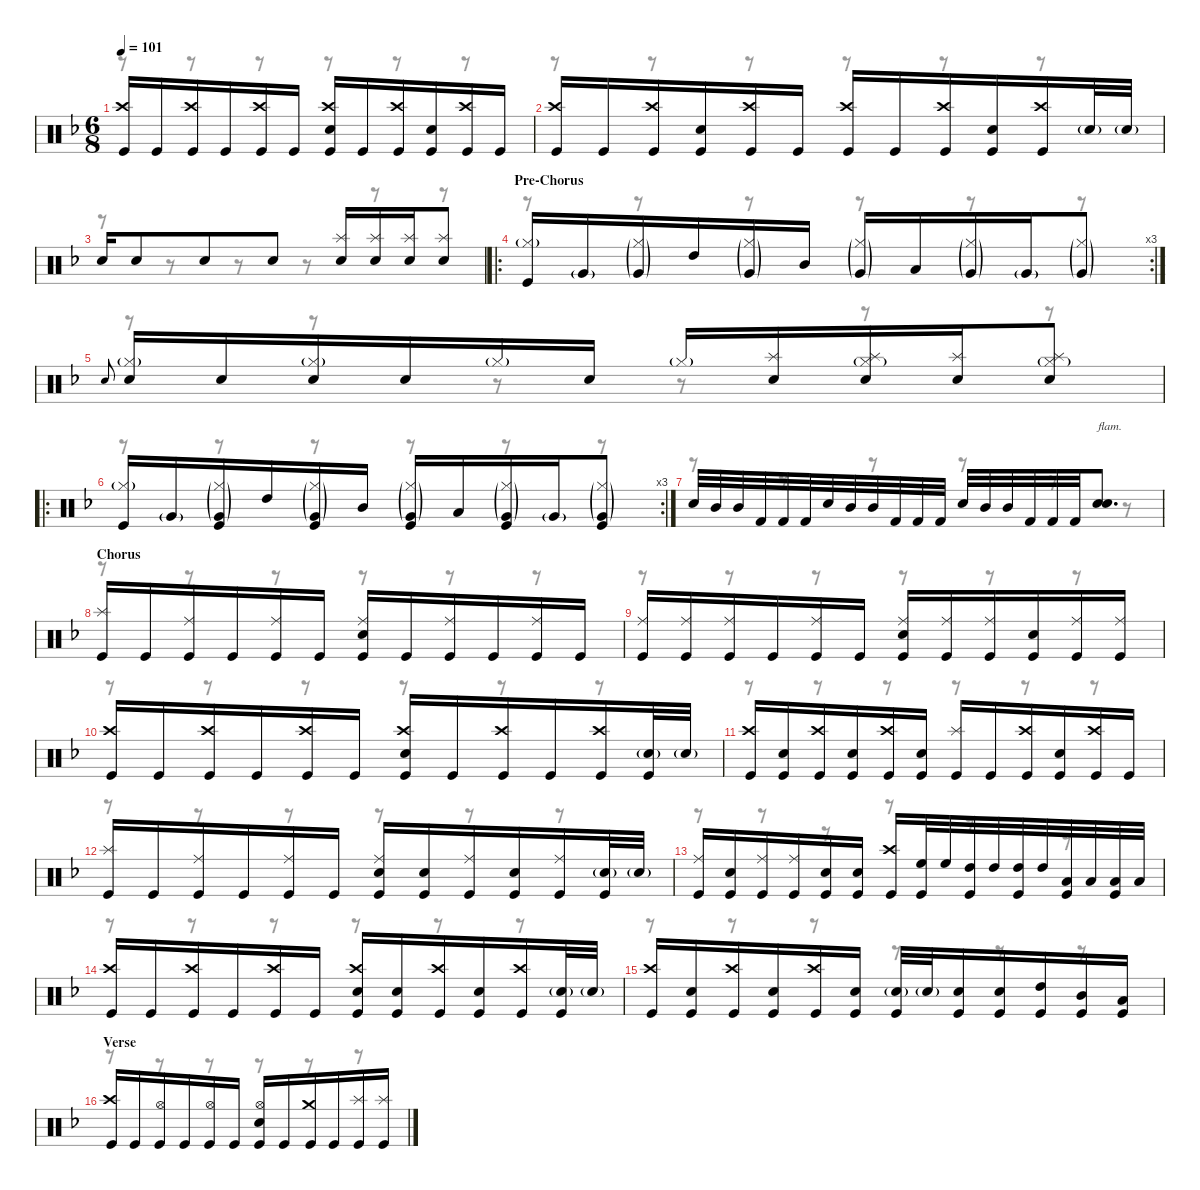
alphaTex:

\defaultSystemsLayout 4
\hideDynamics
\bracketExtendMode nobrackets
\singleTrackTrackNamePolicy hidden
\multiTrackTrackNamePolicy hidden
\otherSystemsTrackNameOrientation horizontal
\track ("M. Lopez" "drm.") {instrument percussion}
\staff {score}
\articulation defaults
\voice
\ts (6 8)
\tempo 101
\clef neutral
\ks dminor
("Crash high (hit)"{acc forcenatural} "Kick (hit)"{acc forcenatural}).16{dy f beam Up} "Kick (hit)"{acc forcenatural}.16{beam Up} ("Crash high (hit)"{acc forcenatural} "Kick (hit)"{acc forcenatural}).16{beam Up} "Kick (hit)"{acc forcenatural}.16{beam Up} ("Crash high (hit)"{acc forcenatural} "Kick (hit)"{acc forcenatural}).16{beam Up} "Kick (hit)"{acc forcenatural}.16{beam Up} ("Crash high (hit)"{acc forcenatural} "Snare (hit) 2"{acc forcenatural} "Kick (hit)"{acc forcenatural}).16{beam Up} "Kick (hit)"{acc forcenatural}.16{beam Up} ("Crash high (hit)"{acc forcenatural} "Kick (hit)"{acc forcenatural}).16{beam Up} ("Snare (hit) 2"{acc forcenatural} "Kick (hit)"{acc forcenatural}).16{beam Up} ("Crash high (hit)"{acc forcenatural} "Kick (hit)"{acc forcenatural}).16{beam Up} "Kick (hit)"{acc forcenatural}.16{beam Up} |
("Crash high (hit)"{acc forcenatural} "Kick (hit)"{acc forcenatural}).16{beam Up} "Kick (hit)"{acc forcenatural}.16{beam Up} ("Crash high (hit)"{acc forcenatural} "Kick (hit)"{acc forcenatural}).16{beam Up} ("Snare (hit) 2"{acc forcenatural} "Kick (hit)"{acc forcenatural}).16{beam Up} ("Crash high (hit)"{acc forcenatural} "Kick (hit)"{acc forcenatural}).16{beam Up} "Kick (hit)"{acc forcenatural}.16{beam Up} ("Crash high (hit)"{acc forcenatural} "Kick (hit)"{acc forcenatural}).16{beam Up} "Kick (hit)"{acc forcenatural}.16{beam Up} ("Crash high (hit)"{acc forcenatural} "Kick (hit)"{acc forcenatural}).16{beam Up} ("Snare (hit) 2"{acc forcenatural} "Kick (hit)"{acc forcenatural}).16{beam Up} ("Crash high (hit)"{acc forcenatural} "Kick (hit)"{acc forcenatural}).16{beam Up} "Snare (hit) 2"{g acc forcenatural}.32{beam Up} "Snare (hit) 2"{g acc forcenatural}.32{dy ff beam Up} |
"Snare (hit) 2"{acc forcenatural}.16{dy f beam Up} "Snare (hit) 2"{acc forcenatural}.8{beam Up} "Snare (hit) 2"{acc forcenatural}.8{beam Up} "Snare (hit) 2"{acc forcenatural}.8{beam Up} ("Splash (hit)"{acc forcenatural} "Snare (hit) 2"{acc forcenatural}).16{dy mf beam Up} ("Splash (hit)"{acc forcenatural} "Snare (hit) 2"{acc forcenatural}).16{beam Up} ("Splash (hit)"{acc forcenatural} "Snare (hit) 2"{acc forcenatural}).16{beam Up} ("Splash (hit)"{acc forcenatural} "Snare (hit) 2"{acc forcenatural}).8{beam Up} |
\ro
\rc 3
\section ("" "Pre-Chorus")
("Hi-Hat (closed)"{g acc forcenatural} "Kick (hit)"{acc forcenatural}).16{beam Up} "Very Low Tom (hit)"{g acc forcenatural}.16{beam Up} ("Hi-Hat (closed)"{g acc forcenatural} "Very Low Tom (hit)"{g acc forcenatural}).16{beam Up} "High Tom (hit)"{acc forcenatural}.16{beam Up} ("Hi-Hat (closed)"{g acc forcenatural} "Very Low Tom (hit)"{g acc forcenatural}).16{beam Up} "Mid Tom (hit)"{acc forcenatural}.16{beam Up} ("Hi-Hat (closed)"{g acc forcenatural} "Very Low Tom (hit)"{g acc forcenatural}).16{beam Up} "Low Tom (hit)"{acc forcenatural}.16{beam Up} ("Hi-Hat (closed)"{g acc forcenatural} "Very Low Tom (hit)"{g acc forcenatural}).16{beam Up} "Very Low Tom (hit)"{g acc forcenatural}.16{dy mp beam Up} ("Hi-Hat (closed)"{g acc forcenatural} "Very Low Tom (hit)"{g acc forcenatural}).8{dy mf beam Up} |
"Electric Snare (hit)"{acc forcenatural}.8{gr onbeat beam Up} ("Hi-Hat (closed)"{g acc forcenatural} "Snare (hit) 2"{acc forcenatural}).16{dy f beam Up} "Snare (hit) 2"{acc forcenatural}.16{beam Up} ("Hi-Hat (closed)"{g acc forcenatural} "Snare (hit) 2"{acc forcenatural}).16{beam Up} "Snare (hit) 2"{acc forcenatural}.16{beam Up} "Hi-Hat (closed)"{g acc forcenatural}.16{dy mf beam Up} "Snare (hit) 2"{acc forcenatural}.16{dy f beam Up} "Hi-Hat (closed)"{g acc forcenatural}.16{dy mf beam Up} ("Splash (hit)"{acc forcenatural} "Snare (hit) 2"{acc forcenatural}).16{beam Up} ("Splash (hit)"{acc forcenatural} "Hi-Hat (closed)"{g acc forcenatural} "Snare (hit) 2"{acc forcenatural}).16{beam Up} ("Splash (hit)"{acc forcenatural} "Snare (hit) 2"{acc forcenatural}).16{beam Up} ("Splash (hit)"{acc forcenatural} "Hi-Hat (closed)"{g acc forcenatural} "Snare (hit) 2"{acc forcenatural}).8{beam Up} |
\ro
\rc 3
("Hi-Hat (closed)"{g acc forcenatural} "Kick (hit)"{acc forcenatural}).16{beam Up} "Very Low Tom (hit)"{g acc forcenatural}.16{beam Up} ("Hi-Hat (closed)"{g acc forcenatural} "Very Low Tom (hit)"{g acc forcenatural} "Kick (hit)"{acc forcenatural}).16{dy f beam Up} "High Tom (hit)"{acc forcenatural}.16{dy mf beam Up} ("Hi-Hat (closed)"{g acc forcenatural} "Very Low Tom (hit)"{g acc forcenatural} "Kick (hit)"{acc forcenatural}).16{dy f beam Up} "Mid Tom (hit)"{acc forcenatural}.16{dy mf beam Up} ("Hi-Hat (closed)"{g acc forcenatural} "Very Low Tom (hit)"{g acc forcenatural} "Kick (hit)"{acc forcenatural}).16{dy f beam Up} "Low Tom (hit)"{acc forcenatural}.16{dy mf beam Up} ("Hi-Hat (closed)"{g acc forcenatural} "Very Low Tom (hit)"{g acc forcenatural} "Kick (hit)"{acc forcenatural}).16{dy f beam Up} "Very Low Tom (hit)"{g acc forcenatural}.16{dy mp beam Up} ("Hi-Hat (closed)"{g acc forcenatural} "Very Low Tom (hit)"{g acc forcenatural} "Kick (hit)"{acc forcenatural}).8{dy f beam Up} |
"Snare (hit) 2"{acc forcenatural}.32{beam Up} "Mid Tom (hit)"{acc forcenatural}.32{beam Up} "Mid Tom (hit)"{acc forcenatural}.32{beam Up} "Kick (hit) 2"{acc forcenatural}.32{beam Up} "Kick (hit) 2"{acc forcenatural}.32{beam Up} "Kick (hit) 2"{acc forcenatural}.32{beam Up} "Snare (hit) 2"{acc forcenatural}.32{beam Up} "Mid Tom (hit)"{acc forcenatural}.32{beam Up} "Mid Tom (hit)"{acc forcenatural}.32{beam Up} "Kick (hit) 2"{acc forcenatural}.32{beam Up} "Kick (hit) 2"{acc forcenatural}.32{beam Up} "Kick (hit) 2"{acc forcenatural}.32{beam Up} "Snare (hit) 2"{acc forcenatural}.32{beam Up} "Mid Tom (hit)"{acc forcenatural}.32{beam Up} "Mid Tom (hit)"{acc forcenatural}.32{beam Up} "Kick (hit) 2"{acc forcenatural}.32{beam Up} "Kick (hit) 2"{acc forcenatural}.32{beam Up} "Kick (hit) 2"{acc forcenatural}.32{beam Up} ("Snare (hit) 2"{acc forcenatural} "Snare (hit) 2"{acc forcenatural}).8{d txt "flam." beam Up} |
\section ("" "Chorus")
("Splash (hit)"{acc forcenatural} "Kick (hit)"{acc forcenatural}).16{beam Up} "Kick (hit)"{acc forcenatural}.16{beam Up} ("Ride (middle)"{acc forcenatural} "Kick (hit)"{acc forcenatural}).16{beam Up} "Kick (hit)"{acc forcenatural}.16{beam Up} ("Ride (middle)"{acc forcenatural} "Kick (hit)"{acc forcenatural}).16{beam Up} "Kick (hit)"{acc forcenatural}.16{beam Up} ("Ride (middle)"{acc forcenatural} "Snare (hit) 2"{acc forcenatural} "Kick (hit)"{acc forcenatural}).16{beam Up} "Kick (hit)"{acc forcenatural}.16{beam Up} ("Ride (middle)"{acc forcenatural} "Kick (hit)"{acc forcenatural}).16{beam Up} "Kick (hit)"{acc forcenatural}.16{beam Up} ("Ride (middle)"{acc forcenatural} "Kick (hit)"{acc forcenatural}).16{beam Up} "Kick (hit)"{acc forcenatural}.16{beam Up} |
("Ride (middle)"{acc forcenatural} "Kick (hit)"{acc forcenatural}).16{beam Up} ("Ride (middle)"{acc forcenatural} "Kick (hit)"{acc forcenatural}).16{beam Up} ("Ride (middle)"{acc forcenatural} "Kick (hit)"{acc forcenatural}).16{beam Up} "Kick (hit)"{acc forcenatural}.16{beam Up} ("Ride (middle)"{acc forcenatural} "Kick (hit)"{acc forcenatural}).16{beam Up} "Kick (hit)"{acc forcenatural}.16{beam Up} ("Ride (middle)"{acc forcenatural} "Snare (hit) 2"{acc forcenatural} "Kick (hit)"{acc forcenatural}).16{beam Up} ("Ride (middle)"{acc forcenatural} "Kick (hit)"{acc forcenatural}).16{beam Up} ("Ride (middle)"{acc forcenatural} "Kick (hit)"{acc forcenatural}).16{beam Up} ("Snare (hit) 2"{acc forcenatural} "Kick (hit)"{acc forcenatural}).16{beam Up} ("Ride (middle)"{acc forcenatural} "Kick (hit)"{acc forcenatural}).16{beam Up} ("Ride (middle)"{acc forcenatural} "Kick (hit)"{acc forcenatural}).16{beam Up} |
("Crash high (hit)"{acc forcenatural} "Kick (hit)"{acc forcenatural}).16{beam Up} "Kick (hit)"{acc forcenatural}.16{beam Up} ("Crash high (hit)"{acc forcenatural} "Kick (hit)"{acc forcenatural}).16{beam Up} "Kick (hit)"{acc forcenatural}.16{beam Up} ("Crash high (hit)"{acc forcenatural} "Kick (hit)"{acc forcenatural}).16{beam Up} "Kick (hit)"{acc forcenatural}.16{beam Up} ("Crash high (hit)"{acc forcenatural} "Snare (hit) 2"{acc forcenatural} "Kick (hit)"{acc forcenatural}).16{beam Up} "Kick (hit)"{acc forcenatural}.16{beam Up} ("Crash high (hit)"{acc forcenatural} "Kick (hit)"{acc forcenatural}).16{beam Up} "Kick (hit)"{acc forcenatural}.16{beam Up} ("Crash high (hit)"{acc forcenatural} "Kick (hit)"{acc forcenatural}).16{beam Up} ("Snare (hit) 2"{g acc forcenatural} "Kick (hit)"{acc forcenatural}).32{beam Up} "Snare (hit) 2"{g acc forcenatural}.32{dy ff beam Up} |
("Crash high (hit)"{acc forcenatural} "Kick (hit)"{acc forcenatural}).16{dy f beam Up} ("Snare (hit) 2"{acc forcenatural} "Kick (hit)"{acc forcenatural}).16{beam Up} ("Crash high (hit)"{acc forcenatural} "Kick (hit)"{acc forcenatural}).16{beam Up} ("Snare (hit) 2"{acc forcenatural} "Kick (hit)"{acc forcenatural}).16{beam Up} ("Crash high (hit)"{acc forcenatural} "Kick (hit)"{acc forcenatural}).16{beam Up} ("Snare (hit) 2"{acc forcenatural} "Kick (hit)"{acc forcenatural}).16{beam Up} ("Splash (hit)"{acc forcenatural} "Kick (hit)"{acc forcenatural}).16{beam Up} "Kick (hit)"{acc forcenatural}.16{beam Up} ("Crash high (hit)"{acc forcenatural} "Kick (hit)"{acc forcenatural}).16{beam Up} ("Snare (hit) 2"{acc forcenatural} "Kick (hit)"{acc forcenatural}).16{beam Up} ("Crash high (hit)"{acc forcenatural} "Kick (hit)"{acc forcenatural}).16{beam Up} "Kick (hit)"{acc forcenatural}.16{beam Up} |
("Splash (hit)"{acc forcenatural} "Kick (hit)"{acc forcenatural}).16{beam Up} "Kick (hit)"{acc forcenatural}.16{beam Up} ("Ride (middle)"{acc forcenatural} "Kick (hit)"{acc forcenatural}).16{beam Up} "Kick (hit)"{acc forcenatural}.16{beam Up} ("Ride (middle)"{acc forcenatural} "Kick (hit)"{acc forcenatural}).16{beam Up} "Kick (hit)"{acc forcenatural}.16{beam Up} ("Ride (middle)"{acc forcenatural} "Snare (hit) 2"{acc forcenatural} "Kick (hit)"{acc forcenatural}).16{beam Up} ("Snare (hit) 2"{acc forcenatural} "Kick (hit)"{acc forcenatural}).16{beam Up} ("Ride (middle)"{acc forcenatural} "Kick (hit)"{acc forcenatural}).16{beam Up} ("Snare (hit) 2"{acc forcenatural} "Kick (hit)"{acc forcenatural}).16{beam Up} ("Ride (middle)"{acc forcenatural} "Kick (hit)"{acc forcenatural}).16{beam Up} ("Snare (hit) 2"{g acc forcenatural} "Kick (hit)"{acc forcenatural}).32{beam Up} "Snare (hit) 2"{g acc forcenatural}.32{dy ff beam Up} |
("Ride (middle)"{acc forcenatural} "Kick (hit)"{acc forcenatural}).16{dy f beam Up} ("Snare (hit) 2"{acc forcenatural} "Kick (hit)"{acc forcenatural}).16{beam Up} ("Ride (middle)"{acc forcenatural} "Kick (hit)"{acc forcenatural}).16{beam Up} ("Ride (middle)"{acc forcenatural} "Kick (hit)"{acc forcenatural}).16{beam Up} ("Snare (hit) 2"{acc forcenatural} "Kick (hit)"{acc forcenatural}).16{beam Up} ("Snare (hit) 2"{acc forcenatural} "Kick (hit)"{acc forcenatural}).16{beam Up} ("Crash high (hit)"{acc forcenatural} "Kick (hit)"{acc forcenatural}).16{beam Up} ("High Floor Tom (hit)"{acc forcenatural} "Kick (hit)"{acc forcenatural}).32{beam Up} "High Floor Tom (hit)"{acc forcenatural}.32{beam Up} ("High Tom (hit)"{acc forcenatural} "Kick (hit)"{acc forcenatural}).32{beam Up} "High Tom (hit)"{acc forcenatural}.32{beam Up} ("High Tom (hit)"{acc forcenatural} "Kick (hit)"{acc forcenatural}).32{beam Up} "High Tom (hit)"{acc forcenatural}.32{beam Up} ("Low Tom (hit)"{acc forcenatural} "Kick (hit)"{acc forcenatural}).32{beam Up} "Low Tom (hit)"{acc forcenatural}.32{beam Up} ("Low Tom (hit)"{acc forcenatural} "Kick (hit)"{acc forcenatural}).32{beam Up} "Low Tom (hit)"{acc forcenatural}.32{beam Up} |
("Crash high (hit)"{acc forcenatural} "Kick (hit)"{acc forcenatural}).16{beam Up} "Kick (hit)"{acc forcenatural}.16{beam Up} ("Crash high (hit)"{acc forcenatural} "Kick (hit)"{acc forcenatural}).16{beam Up} "Kick (hit)"{acc forcenatural}.16{beam Up} ("Crash high (hit)"{acc forcenatural} "Kick (hit)"{acc forcenatural}).16{beam Up} "Kick (hit)"{acc forcenatural}.16{beam Up} ("Crash high (hit)"{acc forcenatural} "Snare (hit) 2"{acc forcenatural} "Kick (hit)"{acc forcenatural}).16{beam Up} ("Snare (hit) 2"{acc forcenatural} "Kick (hit)"{acc forcenatural}).16{beam Up} ("Crash high (hit)"{acc forcenatural} "Kick (hit)"{acc forcenatural}).16{beam Up} ("Snare (hit) 2"{acc forcenatural} "Kick (hit)"{acc forcenatural}).16{beam Up} ("Crash high (hit)"{acc forcenatural} "Kick (hit)"{acc forcenatural}).16{beam Up} ("Snare (hit) 2"{g acc forcenatural} "Kick (hit)"{acc forcenatural}).32{beam Up} "Snare (hit) 2"{g acc forcenatural}.32{dy ff beam Up} |
("Crash high (hit)"{acc forcenatural} "Kick (hit)"{acc forcenatural}).16{dy f beam Up} ("Snare (hit) 2"{acc forcenatural} "Kick (hit)"{acc forcenatural}).16{beam Up} ("Crash high (hit)"{acc forcenatural} "Kick (hit)"{acc forcenatural}).16{beam Up} ("Snare (hit) 2"{acc forcenatural} "Kick (hit)"{acc forcenatural}).16{beam Up} ("Crash high (hit)"{acc forcenatural} "Kick (hit)"{acc forcenatural}).16{beam Up} ("Snare (hit) 2"{acc forcenatural} "Kick (hit)"{acc forcenatural}).16{beam Up} ("Snare (hit) 2"{g acc forcenatural} "Kick (hit)"{acc forcenatural}).32{beam Up} "Snare (hit) 2"{g acc forcenatural}.32{beam Up} ("Snare (hit) 2"{acc forcenatural} "Kick (hit)"{acc forcenatural}).16{beam Up} ("Snare (hit) 2"{acc forcenatural} "Kick (hit)"{acc forcenatural}).16{dy mf beam Up} ("High Tom (hit)"{acc forcenatural} "Kick (hit)"{acc forcenatural}).16{beam Up} ("Mid Tom (hit)"{acc forcenatural} "Kick (hit)"{acc forcenatural}).16{beam Up} ("Low Tom (hit)"{acc forcenatural} "Kick (hit)"{acc forcenatural}).16{beam Up} |
\section ("" "Verse")
("Crash high (hit)"{acc forcenatural} "Kick (hit)"{acc forcenatural}).16{dy f beam Up} "Kick (hit)"{acc forcenatural}.16{beam Up} ("Hi-Hat (open)"{acc forcenatural} "Kick (hit)"{acc forcenatural}).16{beam Up} "Kick (hit)"{acc forcenatural}.16{beam Up} ("Hi-Hat (open)"{acc forcenatural} "Kick (hit)"{acc forcenatural}).16{beam Up} "Kick (hit)"{acc forcenatural}.16{beam Up} ("Hi-Hat (open)"{acc forcenatural} "Snare (hit) 2"{acc forcenatural} "Kick (hit)"{acc forcenatural}).16{beam Up} "Kick (hit)"{acc forcenatural}.16{beam Up} ("Crash medium (hit)"{acc forcenatural} "Kick (hit)"{acc forcenatural}).16{beam Up} "Kick (hit)"{acc forcenatural}.16{beam Up} ("Splash (hit)"{acc forcenatural} "Kick (hit)"{acc forcenatural}).16{beam Up} ("Splash (hit)"{acc forcenatural} "Kick (hit)"{acc forcenatural}).16{beam Up}
\voice
\clef neutral
\ottava regular
\simile none
\ks dminor
r.8{dy mf beam Down} r.8{beam Down} r.8{beam Down} r.8{beam Down} r.8{beam Down} r.8{beam Down} |
r.8{beam Down} r.8{beam Down} r.8{beam Down} r.8{beam Down} r.8{beam Down} r.8{beam Down} |
r.8{beam Down} r.8{beam Down} r.8{beam Down} r.8{beam Down} r.8{beam Down} r.8{beam Down} |
r.8{beam Down} r.8{beam Down} r.8{beam Down} r.8{beam Down} r.8{beam Down} r.8{beam Down} |
r.8{beam Down} r.8{beam Down} r.8{beam Down} r.8{beam Down} r.8{beam Down} r.8{beam Down} |
r.8{beam Down} r.8{beam Down} r.8{beam Down} r.8{beam Down} r.8{beam Down} r.8{beam Down} |
r.8{beam Down} r.8{beam Down} r.8{beam Down} r.8{beam Down} r.8{beam Down} r.8{beam Down} |
r.8{beam Down} r.8{beam Down} r.8{beam Down} r.8{beam Down} r.8{beam Down} r.8{beam Down} |
r.8{beam Down} r.8{beam Down} r.8{beam Down} r.8{beam Down} r.8{beam Down} r.8{beam Down} |
r.8{beam Down} r.8{beam Down} r.8{beam Down} r.8{beam Down} r.8{beam Down} r.8{beam Down} |
r.8{beam Down} r.8{beam Down} r.8{beam Down} r.8{beam Down} r.8{beam Down} r.8{beam Down} |
r.8{beam Down} r.8{beam Down} r.8{beam Down} r.8{beam Down} r.8{beam Down} r.8{beam Down} |
r.8{beam Down} r.8{beam Down} r.8{beam Down} r.8{beam Down} r.8{beam Down} r.8{beam Down} |
r.8{beam Down} r.8{beam Down} r.8{beam Down} r.8{beam Down} r.8{beam Down} r.8{beam Down} |
r.8{beam Down} r.8{beam Down} r.8{beam Down} r.8{beam Down} r.8{beam Down} r.8{beam Down} |
r.8{beam Down} r.8{beam Down} r.8{beam Down} r.8{beam Down} r.8{beam Down} r.8{beam Down}
